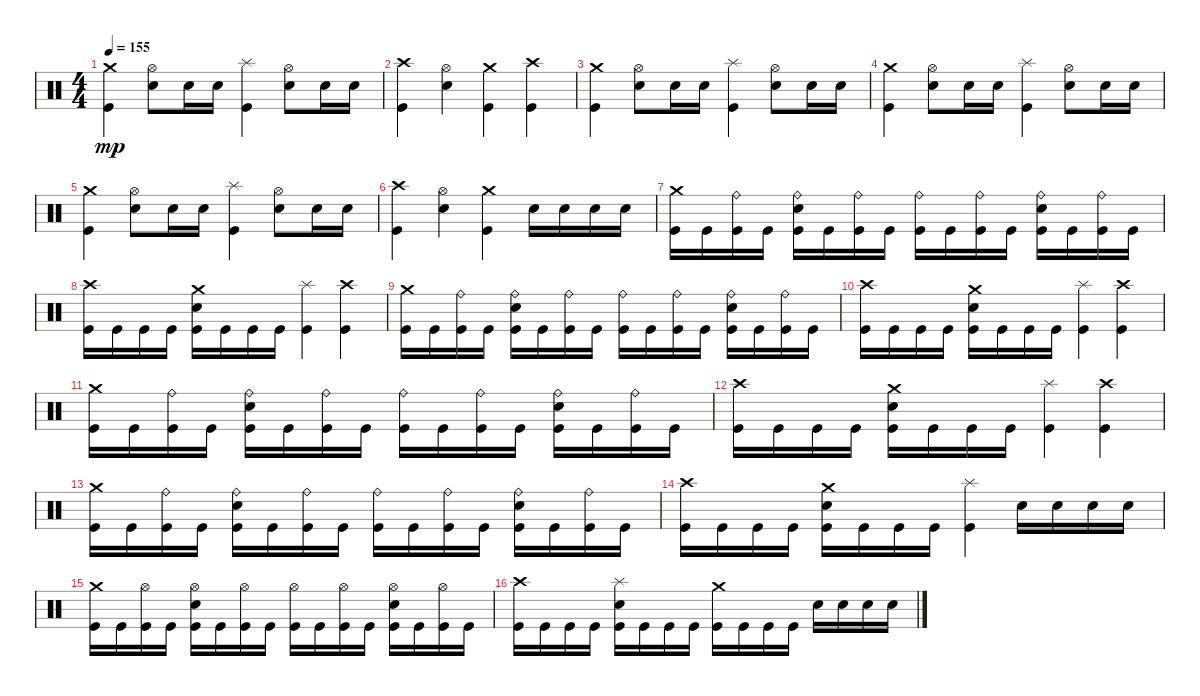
\track "" {instrument percussion}
\staff {score}
\articulation defaults
\ts (4 4)
\tempo 155
\clef neutral
\ks c
("Crash medium (hit)" "Kick (hit)").4{dy mp} ("Snare (hit) 2" "Hi-Hat (open)").8 "Snare (hit) 2".16 "Snare (hit) 2".16 ("Splash (hit)" "Kick (hit)").4 ("Snare (hit) 2" "Hi-Hat (open)").8 "Snare (hit) 2".16 "Snare (hit) 2".16 |
("Crash high (hit)" "Kick (hit)").4 ("Snare (hit) 2" "Hi-Hat (open)").4 ("Kick (hit)" "Crash medium (hit)").4 ("Kick (hit)" "Crash high (hit)").4 |
("Crash medium (hit)" "Kick (hit)").4 ("Snare (hit) 2" "Hi-Hat (open)").8 "Snare (hit) 2".16 "Snare (hit) 2".16 ("Splash (hit)" "Kick (hit)").4 ("Snare (hit) 2" "Hi-Hat (open)").8 "Snare (hit) 2".16 "Snare (hit) 2".16 |
("Crash medium (hit)" "Kick (hit)").4 ("Snare (hit) 2" "Hi-Hat (open)").8 "Snare (hit) 2".16 "Snare (hit) 2".16 ("Splash (hit)" "Kick (hit)").4 ("Snare (hit) 2" "Hi-Hat (open)").8 "Snare (hit) 2".16 "Snare (hit) 2".16 |
("Crash medium (hit)" "Kick (hit)").4 ("Snare (hit) 2" "Hi-Hat (open)").8 "Snare (hit) 2".16 "Snare (hit) 2".16 ("Splash (hit)" "Kick (hit)").4 ("Snare (hit) 2" "Hi-Hat (open)").8 "Snare (hit) 2".16 "Snare (hit) 2".16 |
("Crash high (hit)" "Kick (hit)").4 ("Snare (hit) 2" "Hi-Hat (open)").4 ("Kick (hit)" "Crash medium (hit)").4 "Snare (hit) 2".16 "Snare (hit) 2".16 "Snare (hit) 2".16 "Snare (hit) 2".16 |
("Kick (hit)" "Crash medium (hit)").16 "Kick (hit)".16 ("Kick (hit)" "Ride (bell)").16 "Kick (hit)".16 ("Kick (hit)" "Snare (hit) 2" "Ride (bell)").16 "Kick (hit)".16 ("Kick (hit)" "Ride (bell)").16 "Kick (hit)".16 ("Kick (hit)" "Ride (bell)").16 "Kick (hit)".16 ("Kick (hit)" "Ride (bell)").16 "Kick (hit)".16 ("Kick (hit)" "Snare (hit) 2" "Ride (bell)").16 "Kick (hit)".16 ("Kick (hit)" "Ride (bell)").16 "Kick (hit)".16 |
("Kick (hit)" "Crash high (hit)").16 "Kick (hit)".16 "Kick (hit)".16 "Kick (hit)".16 ("Kick (hit)" "Snare (hit) 2" "Crash medium (hit)").16 "Kick (hit)".16 "Kick (hit)".16 "Kick (hit)".16 ("Kick (hit)" "Splash (hit)").4 ("Kick (hit)" "Crash high (hit)").4 |
("Kick (hit)" "Crash medium (hit)").16 "Kick (hit)".16 ("Kick (hit)" "Ride (bell)").16 "Kick (hit)".16 ("Kick (hit)" "Snare (hit) 2" "Ride (bell)").16 "Kick (hit)".16 ("Kick (hit)" "Ride (bell)").16 "Kick (hit)".16 ("Kick (hit)" "Ride (bell)").16 "Kick (hit)".16 ("Kick (hit)" "Ride (bell)").16 "Kick (hit)".16 ("Kick (hit)" "Snare (hit) 2" "Ride (bell)").16 "Kick (hit)".16 ("Kick (hit)" "Ride (bell)").16 "Kick (hit)".16 |
("Kick (hit)" "Crash high (hit)").16 "Kick (hit)".16 "Kick (hit)".16 "Kick (hit)".16 ("Kick (hit)" "Snare (hit) 2" "Crash medium (hit)").16 "Kick (hit)".16 "Kick (hit)".16 "Kick (hit)".16 ("Kick (hit)" "Splash (hit)").4 ("Kick (hit)" "Crash high (hit)").4 |
("Kick (hit)" "Crash medium (hit)").16 "Kick (hit)".16 ("Kick (hit)" "Ride (bell)").16 "Kick (hit)".16 ("Kick (hit)" "Snare (hit) 2" "Ride (bell)").16 "Kick (hit)".16 ("Kick (hit)" "Ride (bell)").16 "Kick (hit)".16 ("Kick (hit)" "Ride (bell)").16 "Kick (hit)".16 ("Kick (hit)" "Ride (bell)").16 "Kick (hit)".16 ("Kick (hit)" "Snare (hit) 2" "Ride (bell)").16 "Kick (hit)".16 ("Kick (hit)" "Ride (bell)").16 "Kick (hit)".16 |
("Kick (hit)" "Crash high (hit)").16 "Kick (hit)".16 "Kick (hit)".16 "Kick (hit)".16 ("Kick (hit)" "Snare (hit) 2" "Crash medium (hit)").16 "Kick (hit)".16 "Kick (hit)".16 "Kick (hit)".16 ("Kick (hit)" "Splash (hit)").4 ("Kick (hit)" "Crash high (hit)").4 |
("Kick (hit)" "Crash medium (hit)").16 "Kick (hit)".16 ("Kick (hit)" "Ride (bell)").16 "Kick (hit)".16 ("Kick (hit)" "Snare (hit) 2" "Ride (bell)").16 "Kick (hit)".16 ("Kick (hit)" "Ride (bell)").16 "Kick (hit)".16 ("Kick (hit)" "Ride (bell)").16 "Kick (hit)".16 ("Kick (hit)" "Ride (bell)").16 "Kick (hit)".16 ("Kick (hit)" "Snare (hit) 2" "Ride (bell)").16 "Kick (hit)".16 ("Kick (hit)" "Ride (bell)").16 "Kick (hit)".16 |
("Kick (hit)" "Crash high (hit)").16 "Kick (hit)".16 "Kick (hit)".16 "Kick (hit)".16 ("Kick (hit)" "Snare (hit) 2" "Crash medium (hit)").16 "Kick (hit)".16 "Kick (hit)".16 "Kick (hit)".16 ("Kick (hit)" "Splash (hit)").4 "Snare (hit) 2".16 "Snare (hit) 2".16 "Snare (hit) 2".16 "Snare (hit) 2".16 |
("Crash medium (hit)" "Kick (hit)").16 "Kick (hit)".16 ("Kick (hit)" "Hi-Hat (open)").16 "Kick (hit)".16 ("Kick (hit)" "Snare (hit) 2" "Hi-Hat (open)").16 "Kick (hit)".16 ("Kick (hit)" "Hi-Hat (open)").16 "Kick (hit)".16 ("Kick (hit)" "Hi-Hat (open)").16 "Kick (hit)".16 ("Kick (hit)" "Hi-Hat (open)").16 "Kick (hit)".16 ("Kick (hit)" "Snare (hit) 2" "Hi-Hat (open)").16 "Kick (hit)".16 ("Kick (hit)" "Hi-Hat (open)").16 "Kick (hit)".16 |
("Kick (hit)" "Crash high (hit)").16 "Kick (hit)".16 "Kick (hit)".16 "Kick (hit)".16 ("Kick (hit)" "Snare (hit) 2" "Splash (hit)").16 "Kick (hit)".16 "Kick (hit)".16 "Kick (hit)".16 ("Kick (hit)" "Crash medium (hit)").16 "Kick (hit)".16 "Kick (hit)".16 "Kick (hit)".16 "Snare (hit) 2".16 "Snare (hit) 2".16 "Snare (hit) 2".16 "Snare (hit) 2".16
